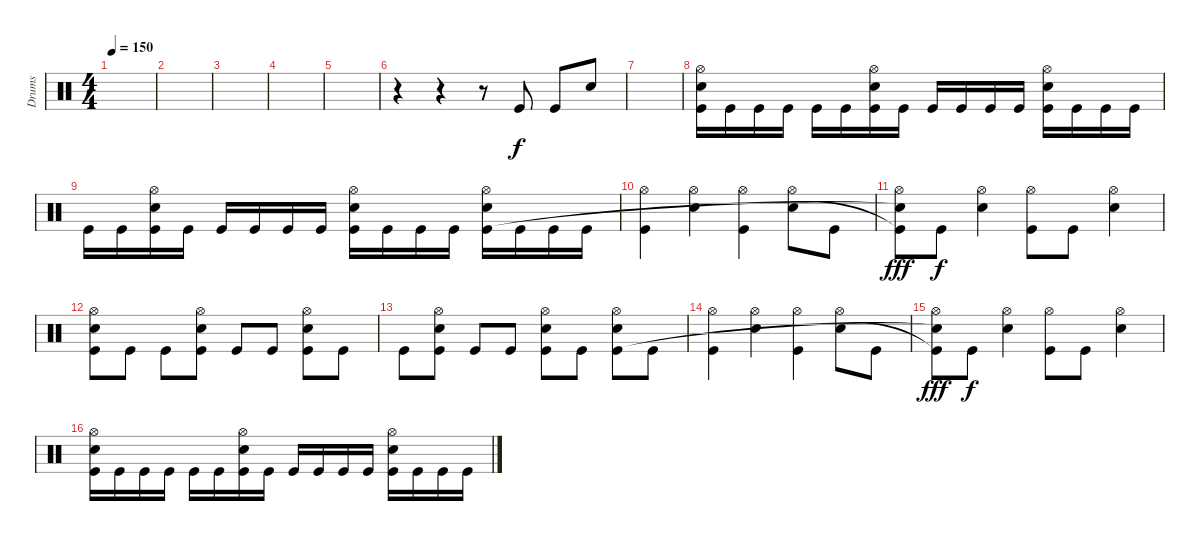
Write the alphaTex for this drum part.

\track ("Drums" "Drums") {instrument percussion}
\staff {score}
\articulation defaults
\ts (4 4)
\tempo 150
\clef neutral
\ks c
|
|
|
|
|
r.4 r.4 r.8 "Kick (hit)".8 "Kick (hit)".8 "Snare (hit) 2".8 |
|
("Hi-Hat (open)" "Snare (hit) 2" "Kick (hit)").16 "Kick (hit)".16 "Kick (hit)".16 "Kick (hit)".16 "Kick (hit)".16 "Kick (hit)".16 ("Hi-Hat (open)" "Snare (hit) 2" "Kick (hit)").16 "Kick (hit)".16 "Kick (hit)".16 "Kick (hit)".16 "Kick (hit)".16 "Kick (hit)".16 ("Hi-Hat (open)" "Snare (hit) 2" "Kick (hit)").16 "Kick (hit)".16 "Kick (hit)".16 "Kick (hit)".16 |
"Kick (hit)".16 "Kick (hit)".16 ("Hi-Hat (open)" "Snare (hit) 2" "Kick (hit)").16 "Kick (hit)".16 "Kick (hit)".16 "Kick (hit)".16 "Kick (hit)".16 "Kick (hit)".16 ("Hi-Hat (open)" "Snare (hit) 2" "Kick (hit)").16 "Kick (hit)".16 "Kick (hit)".16 "Kick (hit)".16 ("Hi-Hat (open)" "Snare (hit) 2" "Kick (hit)").16 "Kick (hit)".16 "Kick (hit)".16 "Kick (hit)".16 |
("Hi-Hat (open)" "Kick (hit)").4 ("Hi-Hat (open)" "Snare (hit) 2").4 ("Hi-Hat (open)" "Kick (hit)").4 ("Hi-Hat (open)" "Snare (hit) 2").8 "Kick (hit)".8 |
("Hi-Hat (open)" "Kick (hit)"{t} "Snare (hit)"{t}).8{dy fff} "Kick (hit)".8{dy f} ("Hi-Hat (open)" "Snare (hit) 2").4 ("Hi-Hat (open)" "Kick (hit)").8 "Kick (hit)".8 ("Hi-Hat (open)" "Snare (hit) 2").4 |
("Hi-Hat (open)" "Snare (hit) 2" "Kick (hit)").8 "Kick (hit)".8 "Kick (hit)".8 ("Hi-Hat (open)" "Snare (hit) 2" "Kick (hit)").8 "Kick (hit)".8 "Kick (hit)".8 ("Hi-Hat (open)" "Snare (hit) 2" "Kick (hit)").8 "Kick (hit)".8 |
"Kick (hit)".8 ("Hi-Hat (open)" "Snare (hit) 2" "Kick (hit)").8 "Kick (hit)".8 "Kick (hit)".8 ("Hi-Hat (open)" "Snare (hit) 2" "Kick (hit)").8 "Kick (hit)".8 ("Hi-Hat (open)" "Snare (hit) 2" "Kick (hit)").8 "Kick (hit)".8 |
("Hi-Hat (open)" "Kick (hit)").4 ("Hi-Hat (open)" "Snare (hit) 2").4 ("Hi-Hat (open)" "Kick (hit)").4 ("Hi-Hat (open)" "Snare (hit) 2").8 "Kick (hit)".8 |
("Hi-Hat (open)" "Kick (hit)"{t} "Snare (hit)"{t}).8{dy fff} "Kick (hit)".8{dy f} ("Hi-Hat (open)" "Snare (hit) 2").4 ("Hi-Hat (open)" "Kick (hit)").8 "Kick (hit)".8 ("Hi-Hat (open)" "Snare (hit) 2").4 |
("Hi-Hat (open)" "Snare (hit) 2" "Kick (hit)").16 "Kick (hit)".16 "Kick (hit)".16 "Kick (hit)".16 "Kick (hit)".16 "Kick (hit)".16 ("Hi-Hat (open)" "Snare (hit) 2" "Kick (hit)").16 "Kick (hit)".16 "Kick (hit)".16 "Kick (hit)".16 "Kick (hit)".16 "Kick (hit)".16 ("Hi-Hat (open)" "Snare (hit) 2" "Kick (hit)").16 "Kick (hit)".16 "Kick (hit)".16 "Kick (hit)".16
